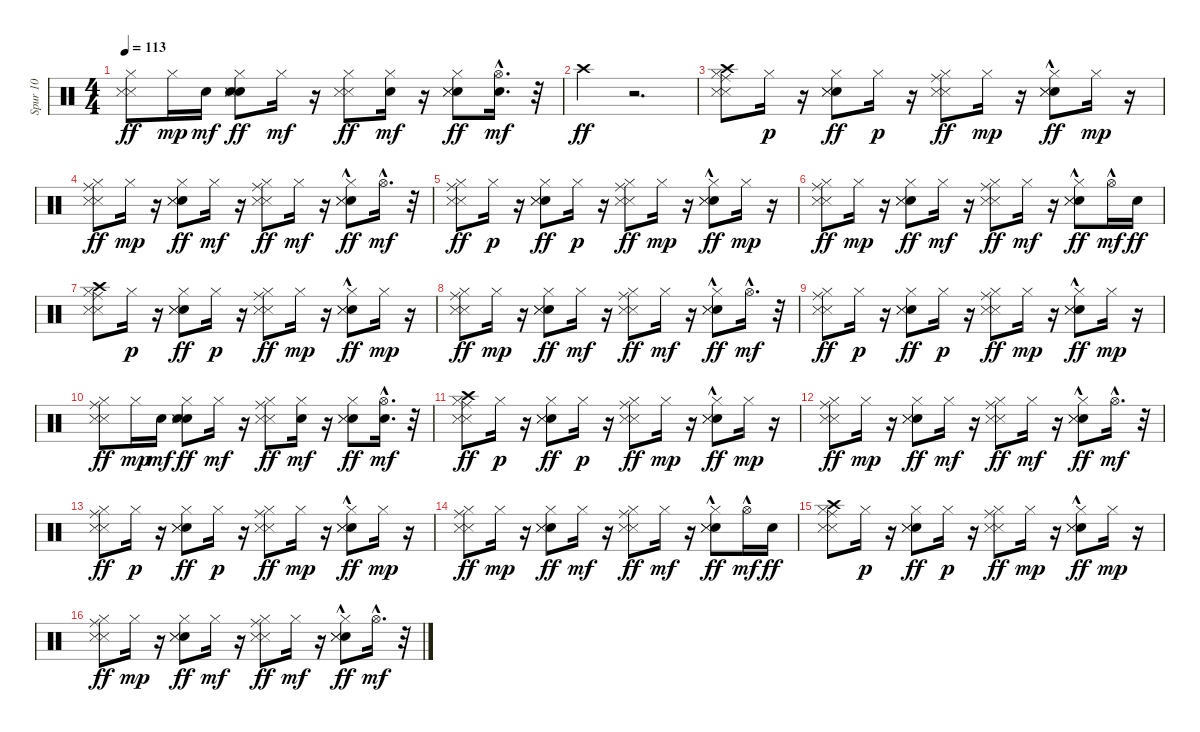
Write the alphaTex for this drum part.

\track ("Spur 10" "Spur 10") {instrument percussion}
\staff {score}
\articulation defaults
\ts (4 4)
\tempo 113
\clef neutral
\ks c
("Hi-Hat (closed)" "Snare (side stick) 3" "Snare (side stick) 3").8{dy ff} "Hi-Hat (closed)".16{dy mp} "Metronome (bell)".16{dy mf} ("Hi-Hat (closed)" "Metronome (bell)" "Metronome (bell)" "Snare (side stick) 3" "Snare (side stick) 3").8{dy ff} "Hi-Hat (closed)".16{dy mf} r.16 ("Hi-Hat (closed)" "Snare (side stick) 3" "Snare (side stick) 3").8{dy ff} ("Metronome (bell)" "Hi-Hat (closed)").16{dy mf} r.16 ("Metronome (bell)" "Snare (side stick) 3" "Snare (side stick) 3" "Hi-Hat (closed)").8{dy ff} ("Metronome (bell)" "Hi-Hat (open)"{hac}).16{d dy mf} r.32 |
"Crash high (hit)".4{dy ff} r.2{d} |
("Ride (middle)" "Crash high (hit)" "Hi-Hat (closed)" "Snare (side stick) 3" "Snare (side stick) 3").8 "Hi-Hat (closed)".16{dy p} r.16 ("Hi-Hat (closed)" "Metronome (bell)" "Snare (side stick) 3" "Snare (side stick) 3").8{dy ff} "Hi-Hat (closed)".16{dy p} r.16 ("Hi-Hat (closed)" "Ride (middle)" "Snare (side stick) 3" "Snare (side stick) 3").8{dy ff} "Hi-Hat (closed)".16{dy mp} r.16 ("Hi-Hat (closed)" "Metronome (bell)"{hac} "Snare (side stick) 3" "Snare (side stick) 3").8{dy ff} "Hi-Hat (closed)".16{dy mp} r.16 |
("Hi-Hat (closed)" "Ride (middle)" "Snare (side stick) 3" "Snare (side stick) 3").8{dy ff} "Hi-Hat (closed)".16{dy mp} r.16 ("Hi-Hat (closed)" "Metronome (bell)" "Snare (side stick) 3" "Snare (side stick) 3").8{dy ff} "Hi-Hat (closed)".16{dy mf} r.16 ("Hi-Hat (closed)" "Ride (middle)" "Snare (side stick) 3" "Snare (side stick) 3").8{dy ff} "Hi-Hat (closed)".16{dy mf} r.16 ("Metronome (bell)"{hac} "Snare (side stick) 3" "Snare (side stick) 3" "Hi-Hat (closed)").8{dy ff} "Hi-Hat (open)"{hac}.16{d dy mf} r.32 |
("Ride (middle)" "Hi-Hat (closed)" "Snare (side stick) 3" "Snare (side stick) 3").8{dy ff} "Hi-Hat (closed)".16{dy p} r.16 ("Hi-Hat (closed)" "Metronome (bell)" "Snare (side stick) 3" "Snare (side stick) 3").8{dy ff} "Hi-Hat (closed)".16{dy p} r.16 ("Hi-Hat (closed)" "Ride (middle)" "Snare (side stick) 3" "Snare (side stick) 3").8{dy ff} "Hi-Hat (closed)".16{dy mp} r.16 ("Hi-Hat (closed)" "Metronome (bell)"{hac} "Snare (side stick) 3" "Snare (side stick) 3").8{dy ff} "Hi-Hat (closed)".16{dy mp} r.16 |
("Hi-Hat (closed)" "Ride (middle)" "Snare (side stick) 3" "Snare (side stick) 3").8{dy ff} "Hi-Hat (closed)".16{dy mp} r.16 ("Hi-Hat (closed)" "Metronome (bell)" "Snare (side stick) 3" "Snare (side stick) 3").8{dy ff} "Hi-Hat (closed)".16{dy mf} r.16 ("Hi-Hat (closed)" "Ride (middle)" "Snare (side stick) 3" "Snare (side stick) 3").8{dy ff} "Hi-Hat (closed)".16{dy mf} r.16 ("Metronome (bell)"{hac} "Snare (side stick) 3" "Snare (side stick) 3" "Hi-Hat (closed)").8{dy ff} "Hi-Hat (open)"{hac}.16{dy mf} "Metronome (bell)".16{dy ff} |
("Ride (middle)" "Hi-Hat (closed)" "Snare (side stick) 3" "Snare (side stick) 3" "Crash high (hit)").8 "Hi-Hat (closed)".16{dy p} r.16 ("Hi-Hat (closed)" "Metronome (bell)" "Snare (side stick) 3" "Snare (side stick) 3").8{dy ff} "Hi-Hat (closed)".16{dy p} r.16 ("Hi-Hat (closed)" "Ride (middle)" "Snare (side stick) 3" "Snare (side stick) 3").8{dy ff} "Hi-Hat (closed)".16{dy mp} r.16 ("Hi-Hat (closed)" "Metronome (bell)"{hac} "Snare (side stick) 3" "Snare (side stick) 3").8{dy ff} "Hi-Hat (closed)".16{dy mp} r.16 |
("Hi-Hat (closed)" "Ride (middle)" "Snare (side stick) 3" "Snare (side stick) 3").8{dy ff} "Hi-Hat (closed)".16{dy mp} r.16 ("Hi-Hat (closed)" "Metronome (bell)" "Snare (side stick) 3" "Snare (side stick) 3").8{dy ff} "Hi-Hat (closed)".16{dy mf} r.16 ("Hi-Hat (closed)" "Ride (middle)" "Snare (side stick) 3" "Snare (side stick) 3").8{dy ff} "Hi-Hat (closed)".16{dy mf} r.16 ("Metronome (bell)"{hac} "Snare (side stick) 3" "Snare (side stick) 3" "Hi-Hat (closed)").8{dy ff} "Hi-Hat (open)"{hac}.16{d dy mf} r.32 |
("Ride (middle)" "Hi-Hat (closed)" "Snare (side stick) 3" "Snare (side stick) 3").8{dy ff} "Hi-Hat (closed)".16{dy p} r.16 ("Hi-Hat (closed)" "Metronome (bell)" "Snare (side stick) 3" "Snare (side stick) 3").8{dy ff} "Hi-Hat (closed)".16{dy p} r.16 ("Hi-Hat (closed)" "Ride (middle)" "Snare (side stick) 3" "Snare (side stick) 3").8{dy ff} "Hi-Hat (closed)".16{dy mp} r.16 ("Hi-Hat (closed)" "Metronome (bell)"{hac} "Snare (side stick) 3" "Snare (side stick) 3").8{dy ff} "Hi-Hat (closed)".16{dy mp} r.16 |
("Hi-Hat (closed)" "Ride (middle)" "Snare (side stick) 3" "Snare (side stick) 3").8{dy ff} "Hi-Hat (closed)".16{dy mp} "Metronome (bell)".16{dy mf} ("Hi-Hat (closed)" "Metronome (bell)" "Metronome (bell)" "Snare (side stick) 3" "Snare (side stick) 3").8{dy ff} "Hi-Hat (closed)".16{dy mf} r.16 ("Hi-Hat (closed)" "Ride (middle)" "Snare (side stick) 3" "Snare (side stick) 3").8{dy ff} ("Metronome (bell)" "Hi-Hat (closed)").16{dy mf} r.16 ("Metronome (bell)" "Snare (side stick) 3" "Snare (side stick) 3" "Hi-Hat (closed)").8{dy ff} ("Metronome (bell)" "Hi-Hat (open)"{hac}).16{d dy mf} r.32 |
("Ride (middle)" "Crash high (hit)" "Hi-Hat (closed)" "Snare (side stick) 3" "Snare (side stick) 3").8{dy ff} "Hi-Hat (closed)".16{dy p} r.16 ("Hi-Hat (closed)" "Metronome (bell)" "Snare (side stick) 3" "Snare (side stick) 3").8{dy ff} "Hi-Hat (closed)".16{dy p} r.16 ("Hi-Hat (closed)" "Ride (middle)" "Snare (side stick) 3" "Snare (side stick) 3").8{dy ff} "Hi-Hat (closed)".16{dy mp} r.16 ("Hi-Hat (closed)" "Metronome (bell)"{hac} "Snare (side stick) 3" "Snare (side stick) 3").8{dy ff} "Hi-Hat (closed)".16{dy mp} r.16 |
("Hi-Hat (closed)" "Ride (middle)" "Snare (side stick) 3" "Snare (side stick) 3").8{dy ff} "Hi-Hat (closed)".16{dy mp} r.16 ("Hi-Hat (closed)" "Metronome (bell)" "Snare (side stick) 3" "Snare (side stick) 3").8{dy ff} "Hi-Hat (closed)".16{dy mf} r.16 ("Hi-Hat (closed)" "Ride (middle)" "Snare (side stick) 3" "Snare (side stick) 3").8{dy ff} "Hi-Hat (closed)".16{dy mf} r.16 ("Metronome (bell)"{hac} "Snare (side stick) 3" "Snare (side stick) 3" "Hi-Hat (closed)").8{dy ff} "Hi-Hat (open)"{hac}.16{d dy mf} r.32 |
("Ride (middle)" "Hi-Hat (closed)" "Snare (side stick) 3" "Snare (side stick) 3").8{dy ff} "Hi-Hat (closed)".16{dy p} r.16 ("Hi-Hat (closed)" "Metronome (bell)" "Snare (side stick) 3" "Snare (side stick) 3").8{dy ff} "Hi-Hat (closed)".16{dy p} r.16 ("Hi-Hat (closed)" "Ride (middle)" "Snare (side stick) 3" "Snare (side stick) 3").8{dy ff} "Hi-Hat (closed)".16{dy mp} r.16 ("Hi-Hat (closed)" "Metronome (bell)"{hac} "Snare (side stick) 3" "Snare (side stick) 3").8{dy ff} "Hi-Hat (closed)".16{dy mp} r.16 |
("Hi-Hat (closed)" "Ride (middle)" "Snare (side stick) 3" "Snare (side stick) 3").8{dy ff} "Hi-Hat (closed)".16{dy mp} r.16 ("Hi-Hat (closed)" "Metronome (bell)" "Snare (side stick) 3" "Snare (side stick) 3").8{dy ff} "Hi-Hat (closed)".16{dy mf} r.16 ("Hi-Hat (closed)" "Ride (middle)" "Snare (side stick) 3" "Snare (side stick) 3").8{dy ff} "Hi-Hat (closed)".16{dy mf} r.16 ("Metronome (bell)"{hac} "Snare (side stick) 3" "Snare (side stick) 3" "Hi-Hat (closed)").8{dy ff} "Hi-Hat (open)"{hac}.16{dy mf} "Metronome (bell)".16{dy ff} |
("Ride (middle)" "Hi-Hat (closed)" "Snare (side stick) 3" "Snare (side stick) 3" "Crash high (hit)").8 "Hi-Hat (closed)".16{dy p} r.16 ("Hi-Hat (closed)" "Metronome (bell)" "Snare (side stick) 3" "Snare (side stick) 3").8{dy ff} "Hi-Hat (closed)".16{dy p} r.16 ("Hi-Hat (closed)" "Ride (middle)" "Snare (side stick) 3" "Snare (side stick) 3").8{dy ff} "Hi-Hat (closed)".16{dy mp} r.16 ("Hi-Hat (closed)" "Metronome (bell)"{hac} "Snare (side stick) 3" "Snare (side stick) 3").8{dy ff} "Hi-Hat (closed)".16{dy mp} r.16 |
("Hi-Hat (closed)" "Ride (middle)" "Snare (side stick) 3" "Snare (side stick) 3").8{dy ff} "Hi-Hat (closed)".16{dy mp} r.16 ("Hi-Hat (closed)" "Metronome (bell)" "Snare (side stick) 3" "Snare (side stick) 3").8{dy ff} "Hi-Hat (closed)".16{dy mf} r.16 ("Hi-Hat (closed)" "Ride (middle)" "Snare (side stick) 3" "Snare (side stick) 3").8{dy ff} "Hi-Hat (closed)".16{dy mf} r.16 ("Metronome (bell)"{hac} "Snare (side stick) 3" "Snare (side stick) 3" "Hi-Hat (closed)").8{dy ff} "Hi-Hat (open)"{hac}.16{d dy mf} r.32
